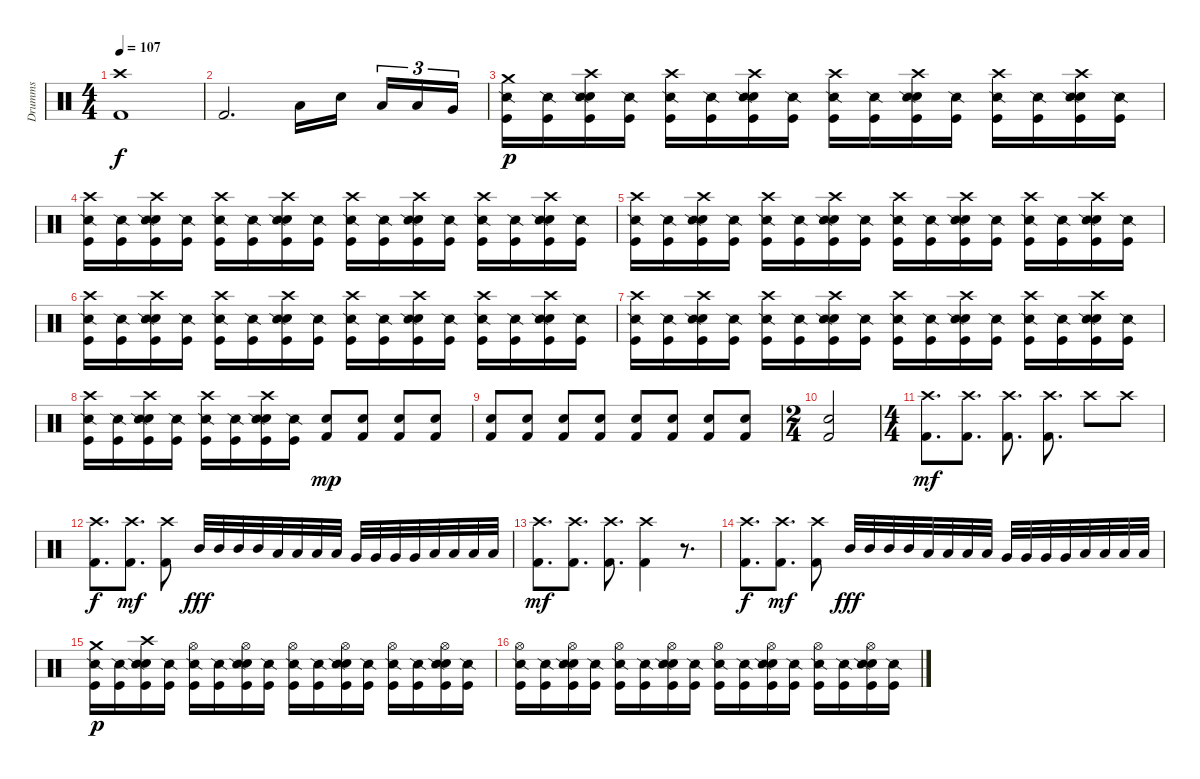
\track ("Drumms" "Drumms") {instrument percussion}
\staff {score}
\articulation defaults
\ts (4 4)
\tempo 107
\clef neutral
\ks c
("Crash high (hit)" "Kick (hit) 2").1{dy f} |
"Kick (hit) 2".2{d} "Low Tom (hit)".16 "Electric Snare (hit)".16 "Low Tom (hit)".16{tu (3 2)} "Low Tom (hit)".16{tu (3 2)} "Very Low Tom (hit)".16{tu (3 2)} |
("Crash medium (hit)" "Snare (side stick) 2" "Kick (hit)").16{dy p} ("Snare (side stick) 2" "Kick (hit)").16 ("Crash high (hit)" "Electric Snare (hit)" "Snare (side stick) 2" "Kick (hit)").16 ("Snare (side stick) 2" "Kick (hit)").16 ("Crash high (hit)" "Snare (side stick) 2" "Kick (hit)").16 ("Snare (side stick) 2" "Kick (hit)").16 ("Crash high (hit)" "Electric Snare (hit)" "Snare (side stick) 2" "Kick (hit)").16 ("Snare (side stick) 2" "Kick (hit)").16 ("Crash high (hit)" "Snare (side stick) 2" "Kick (hit)").16 ("Snare (side stick) 2" "Kick (hit)").16 ("Crash high (hit)" "Electric Snare (hit)" "Snare (side stick) 2" "Kick (hit)").16 ("Snare (side stick) 2" "Kick (hit)").16 ("Crash high (hit)" "Snare (side stick) 2" "Kick (hit)").16 ("Snare (side stick) 2" "Kick (hit)").16 ("Crash high (hit)" "Electric Snare (hit)" "Snare (side stick) 2" "Kick (hit)").16 ("Snare (side stick) 2" "Kick (hit)").16 |
("Crash high (hit)" "Snare (side stick) 2" "Kick (hit)").16 ("Snare (side stick) 2" "Kick (hit)").16 ("Crash high (hit)" "Electric Snare (hit)" "Snare (side stick) 2" "Kick (hit)").16 ("Snare (side stick) 2" "Kick (hit)").16 ("Crash high (hit)" "Snare (side stick) 2" "Kick (hit)").16 ("Snare (side stick) 2" "Kick (hit)").16 ("Crash high (hit)" "Electric Snare (hit)" "Snare (side stick) 2" "Kick (hit)").16 ("Snare (side stick) 2" "Kick (hit)").16 ("Crash high (hit)" "Snare (side stick) 2" "Kick (hit)").16 ("Snare (side stick) 2" "Kick (hit)").16 ("Crash high (hit)" "Electric Snare (hit)" "Snare (side stick) 2" "Kick (hit)").16 ("Snare (side stick) 2" "Kick (hit)").16 ("Crash high (hit)" "Snare (side stick) 2" "Kick (hit)").16 ("Snare (side stick) 2" "Kick (hit)").16 ("Crash high (hit)" "Electric Snare (hit)" "Snare (side stick) 2" "Kick (hit)").16 ("Snare (side stick) 2" "Kick (hit)").16 |
("Crash high (hit)" "Snare (side stick) 2" "Kick (hit)").16 ("Snare (side stick) 2" "Kick (hit)").16 ("Crash high (hit)" "Electric Snare (hit)" "Snare (side stick) 2" "Kick (hit)").16 ("Snare (side stick) 2" "Kick (hit)").16 ("Crash high (hit)" "Snare (side stick) 2" "Kick (hit)").16 ("Snare (side stick) 2" "Kick (hit)").16 ("Crash high (hit)" "Electric Snare (hit)" "Snare (side stick) 2" "Kick (hit)").16 ("Snare (side stick) 2" "Kick (hit)").16 ("Crash high (hit)" "Snare (side stick) 2" "Kick (hit)").16 ("Snare (side stick) 2" "Kick (hit)").16 ("Crash high (hit)" "Electric Snare (hit)" "Snare (side stick) 2" "Kick (hit)").16 ("Snare (side stick) 2" "Kick (hit)").16 ("Crash high (hit)" "Snare (side stick) 2" "Kick (hit)").16 ("Snare (side stick) 2" "Kick (hit)").16 ("Crash high (hit)" "Electric Snare (hit)" "Snare (side stick) 2" "Kick (hit)").16 ("Snare (side stick) 2" "Kick (hit)").16 |
("Crash high (hit)" "Snare (side stick) 2" "Kick (hit)").16 ("Snare (side stick) 2" "Kick (hit)").16 ("Crash high (hit)" "Electric Snare (hit)" "Snare (side stick) 2" "Kick (hit)").16 ("Snare (side stick) 2" "Kick (hit)").16 ("Crash high (hit)" "Snare (side stick) 2" "Kick (hit)").16 ("Snare (side stick) 2" "Kick (hit)").16 ("Crash high (hit)" "Electric Snare (hit)" "Snare (side stick) 2" "Kick (hit)").16 ("Snare (side stick) 2" "Kick (hit)").16 ("Crash high (hit)" "Snare (side stick) 2" "Kick (hit)").16 ("Snare (side stick) 2" "Kick (hit)").16 ("Crash high (hit)" "Electric Snare (hit)" "Snare (side stick) 2" "Kick (hit)").16 ("Snare (side stick) 2" "Kick (hit)").16 ("Crash high (hit)" "Snare (side stick) 2" "Kick (hit)").16 ("Snare (side stick) 2" "Kick (hit)").16 ("Crash high (hit)" "Electric Snare (hit)" "Snare (side stick) 2" "Kick (hit)").16 ("Snare (side stick) 2" "Kick (hit)").16 |
("Crash high (hit)" "Snare (side stick) 2" "Kick (hit)").16 ("Snare (side stick) 2" "Kick (hit)").16 ("Crash high (hit)" "Electric Snare (hit)" "Snare (side stick) 2" "Kick (hit)").16 ("Snare (side stick) 2" "Kick (hit)").16 ("Crash high (hit)" "Snare (side stick) 2" "Kick (hit)").16 ("Snare (side stick) 2" "Kick (hit)").16 ("Crash high (hit)" "Electric Snare (hit)" "Snare (side stick) 2" "Kick (hit)").16 ("Snare (side stick) 2" "Kick (hit)").16 ("Crash high (hit)" "Snare (side stick) 2" "Kick (hit)").16 ("Snare (side stick) 2" "Kick (hit)").16 ("Crash high (hit)" "Electric Snare (hit)" "Snare (side stick) 2" "Kick (hit)").16 ("Snare (side stick) 2" "Kick (hit)").16 ("Crash high (hit)" "Snare (side stick) 2" "Kick (hit)").16 ("Snare (side stick) 2" "Kick (hit)").16 ("Crash high (hit)" "Electric Snare (hit)" "Snare (side stick) 2" "Kick (hit)").16 ("Snare (side stick) 2" "Kick (hit)").16 |
("Crash high (hit)" "Snare (side stick) 2" "Kick (hit)").16 ("Snare (side stick) 2" "Kick (hit)").16 ("Crash high (hit)" "Electric Snare (hit)" "Snare (side stick) 2" "Kick (hit)").16 ("Snare (side stick) 2" "Kick (hit)").16 ("Crash high (hit)" "Snare (side stick) 2" "Kick (hit)").16 ("Snare (side stick) 2" "Kick (hit)").16 ("Crash high (hit)" "Electric Snare (hit)" "Snare (side stick) 2" "Kick (hit)").16 ("Snare (side stick) 2" "Kick (hit)").16 ("Electric Snare (hit)" "Kick (hit) 2").8{dy mp} ("Electric Snare (hit)" "Kick (hit) 2").8 ("Electric Snare (hit)" "Kick (hit) 2").8 ("Electric Snare (hit)" "Kick (hit) 2").8 |
("Electric Snare (hit)" "Kick (hit) 2").8 ("Electric Snare (hit)" "Kick (hit) 2").8 ("Electric Snare (hit)" "Kick (hit) 2").8 ("Electric Snare (hit)" "Kick (hit) 2").8 ("Electric Snare (hit)" "Kick (hit) 2").8 ("Electric Snare (hit)" "Kick (hit) 2").8 ("Electric Snare (hit)" "Kick (hit) 2").8 ("Electric Snare (hit)" "Kick (hit) 2").8 |
\ts (2 4)
("Electric Snare (hit)" "Kick (hit) 2").2 |
\ts (4 4)
("Crash high (hit)" "Kick (hit) 2").8{d dy mf} ("Crash high (hit)" "Kick (hit) 2").8{d} ("Crash high (hit)" "Kick (hit) 2").8{d} ("Crash high (hit)" "Kick (hit) 2").8{d} "Crash high (hit)".8 "Crash high (hit)".8 |
("Crash high (hit)" "Kick (hit) 2").8{d dy f} ("Crash high (hit)" "Kick (hit) 2").8{d dy mf} ("Crash high (hit)" "Kick (hit) 2").8 "Mid Tom (hit)".32{dy fff} "Mid Tom (hit)".32 "Mid Tom (hit)".32 "Mid Tom (hit)".32 "Low Tom (hit)".32 "Low Tom (hit)".32 "Low Tom (hit)".32 "Low Tom (hit)".32 "Very Low Tom (hit)".32 "Very Low Tom (hit)".32 "Very Low Tom (hit)".32 "Very Low Tom (hit)".32 "Low Floor Tom (hit)".32 "Low Floor Tom (hit)".32 "Low Floor Tom (hit)".32 "Low Floor Tom (hit)".32 |
("Crash high (hit)" "Kick (hit) 2").8{d dy mf} ("Crash high (hit)" "Kick (hit) 2").8{d} ("Crash high (hit)" "Kick (hit) 2").8{d} ("Crash high (hit)" "Kick (hit) 2").4 r.8{d} |
("Crash high (hit)" "Kick (hit) 2").8{d dy f} ("Crash high (hit)" "Kick (hit) 2").8{d dy mf} ("Crash high (hit)" "Kick (hit) 2").8 "Mid Tom (hit)".32{dy fff} "Mid Tom (hit)".32 "Mid Tom (hit)".32 "Mid Tom (hit)".32 "Low Tom (hit)".32 "Low Tom (hit)".32 "Low Tom (hit)".32 "Low Tom (hit)".32 "Very Low Tom (hit)".32 "Very Low Tom (hit)".32 "Very Low Tom (hit)".32 "Very Low Tom (hit)".32 "Low Floor Tom (hit)".32 "Low Floor Tom (hit)".32 "Low Floor Tom (hit)".32 "Low Floor Tom (hit)".32 |
("Crash medium (hit)" "Snare (side stick) 2" "Kick (hit)").16{dy p} ("Snare (side stick) 2" "Kick (hit)").16 ("Crash high (hit)" "Electric Snare (hit)" "Snare (side stick) 2" "Kick (hit)").16 ("Snare (side stick) 2" "Kick (hit)").16 ("Hi-Hat (open)" "Snare (side stick) 2" "Kick (hit)").16 ("Snare (side stick) 2" "Kick (hit)").16 ("Hi-Hat (open)" "Electric Snare (hit)" "Snare (side stick) 2" "Kick (hit)").16 ("Snare (side stick) 2" "Kick (hit)").16 ("Hi-Hat (open)" "Snare (side stick) 2" "Kick (hit)").16 ("Snare (side stick) 2" "Kick (hit)").16 ("Hi-Hat (open)" "Electric Snare (hit)" "Snare (side stick) 2" "Kick (hit)").16 ("Snare (side stick) 2" "Kick (hit)").16 ("Hi-Hat (open)" "Snare (side stick) 2" "Kick (hit)").16 ("Snare (side stick) 2" "Kick (hit)").16 ("Hi-Hat (open)" "Electric Snare (hit)" "Snare (side stick) 2" "Kick (hit)").16 ("Snare (side stick) 2" "Kick (hit)").16 |
("Hi-Hat (open)" "Snare (side stick) 2" "Kick (hit)").16 ("Snare (side stick) 2" "Kick (hit)").16 ("Hi-Hat (open)" "Electric Snare (hit)" "Snare (side stick) 2" "Kick (hit)").16 ("Snare (side stick) 2" "Kick (hit)").16 ("Hi-Hat (open)" "Snare (side stick) 2" "Kick (hit)").16 ("Snare (side stick) 2" "Kick (hit)").16 ("Hi-Hat (open)" "Electric Snare (hit)" "Snare (side stick) 2" "Kick (hit)").16 ("Snare (side stick) 2" "Kick (hit)").16 ("Hi-Hat (open)" "Snare (side stick) 2" "Kick (hit)").16 ("Snare (side stick) 2" "Kick (hit)").16 ("Hi-Hat (open)" "Electric Snare (hit)" "Snare (side stick) 2" "Kick (hit)").16 ("Snare (side stick) 2" "Kick (hit)").16 ("Hi-Hat (open)" "Snare (side stick) 2" "Kick (hit)").16 ("Snare (side stick) 2" "Kick (hit)").16 ("Hi-Hat (open)" "Electric Snare (hit)" "Snare (side stick) 2" "Kick (hit)").16 ("Snare (side stick) 2" "Kick (hit)").16
